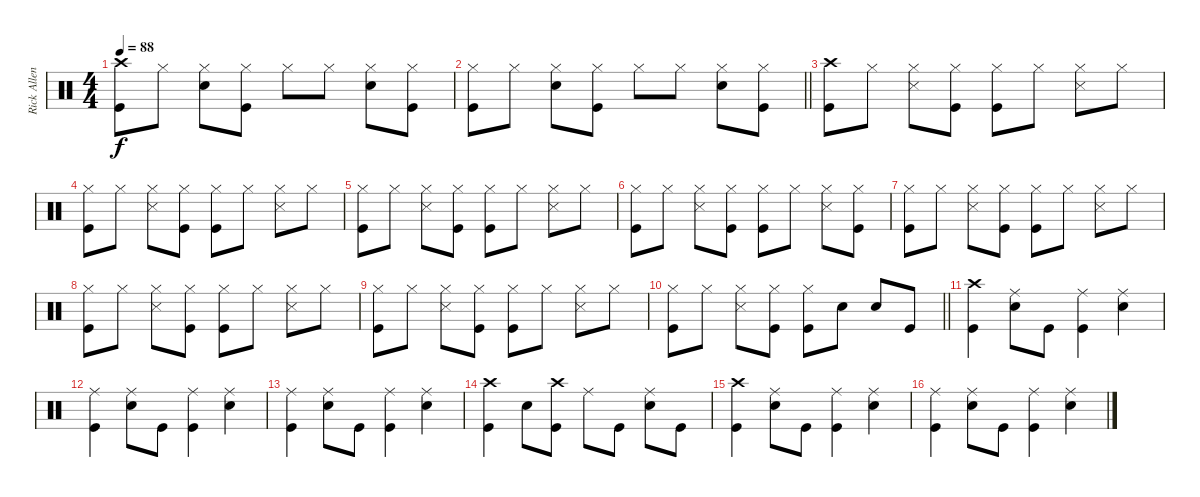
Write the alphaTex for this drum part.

\track ("Rick Allen" "Rick Allen") {instrument percussion}
\staff {score}
\articulation defaults
\ts (4 4)
\tempo 88
\clef neutral
\ks c
("Crash high (hit)" "Kick (hit)").8{dy f} "Hi-Hat (closed)".8 ("Hi-Hat (closed)" "Snare (hit) 2").8 ("Hi-Hat (closed)" "Kick (hit)").8 "Hi-Hat (closed)".8 "Hi-Hat (closed)".8 ("Hi-Hat (closed)" "Snare (hit) 2").8 ("Hi-Hat (closed)" "Kick (hit)").8 |
\barLineRight lightlight
("Hi-Hat (closed)" "Kick (hit)").8 "Hi-Hat (closed)".8 ("Hi-Hat (closed)" "Snare (hit) 2").8 ("Hi-Hat (closed)" "Kick (hit)").8 "Hi-Hat (closed)".8 "Hi-Hat (closed)".8 ("Hi-Hat (closed)" "Snare (hit) 2").8 ("Hi-Hat (closed)" "Kick (hit)").8 |
("Crash high (hit)" "Kick (hit)").8 "Hi-Hat (closed)".8 ("Hi-Hat (closed)" "Metronome (hit)").8 ("Hi-Hat (closed)" "Kick (hit)").8 ("Hi-Hat (closed)" "Kick (hit)").8 "Hi-Hat (closed)".8 ("Hi-Hat (closed)" "Metronome (hit)").8 "Hi-Hat (closed)".8 |
("Hi-Hat (closed)" "Kick (hit)").8 "Hi-Hat (closed)".8 ("Hi-Hat (closed)" "Metronome (hit)").8 ("Hi-Hat (closed)" "Kick (hit)").8 ("Hi-Hat (closed)" "Kick (hit)").8 "Hi-Hat (closed)".8 ("Hi-Hat (closed)" "Metronome (hit)").8 "Hi-Hat (closed)".8 |
("Hi-Hat (closed)" "Kick (hit)").8 "Hi-Hat (closed)".8 ("Hi-Hat (closed)" "Metronome (hit)").8 ("Hi-Hat (closed)" "Kick (hit)").8 ("Hi-Hat (closed)" "Kick (hit)").8 "Hi-Hat (closed)".8 ("Hi-Hat (closed)" "Metronome (hit)").8 "Hi-Hat (closed)".8 |
("Hi-Hat (closed)" "Kick (hit)").8 "Hi-Hat (closed)".8 ("Hi-Hat (closed)" "Metronome (hit)").8 ("Hi-Hat (closed)" "Kick (hit)").8 ("Hi-Hat (closed)" "Kick (hit)").8 "Hi-Hat (closed)".8 ("Hi-Hat (closed)" "Metronome (hit)").8 ("Hi-Hat (closed)" "Kick (hit)").8 |
("Hi-Hat (closed)" "Kick (hit)").8 "Hi-Hat (closed)".8 ("Hi-Hat (closed)" "Metronome (hit)").8 ("Hi-Hat (closed)" "Kick (hit)").8 ("Hi-Hat (closed)" "Kick (hit)").8 "Hi-Hat (closed)".8 ("Hi-Hat (closed)" "Metronome (hit)").8 "Hi-Hat (closed)".8 |
("Hi-Hat (closed)" "Kick (hit)").8 "Hi-Hat (closed)".8 ("Hi-Hat (closed)" "Metronome (hit)").8 ("Hi-Hat (closed)" "Kick (hit)").8 ("Hi-Hat (closed)" "Kick (hit)").8 "Hi-Hat (closed)".8 ("Hi-Hat (closed)" "Metronome (hit)").8 "Hi-Hat (closed)".8 |
("Hi-Hat (closed)" "Kick (hit)").8 "Hi-Hat (closed)".8 ("Hi-Hat (closed)" "Metronome (hit)").8 ("Hi-Hat (closed)" "Kick (hit)").8 ("Hi-Hat (closed)" "Kick (hit)").8 "Hi-Hat (closed)".8 ("Hi-Hat (closed)" "Metronome (hit)").8 "Hi-Hat (closed)".8 |
\barLineRight lightlight
("Hi-Hat (closed)" "Kick (hit)").8 "Hi-Hat (closed)".8 ("Hi-Hat (closed)" "Metronome (hit)").8 ("Hi-Hat (closed)" "Kick (hit)").8 ("Hi-Hat (closed)" "Kick (hit)").8 "Snare (hit) 2".8 "Snare (hit) 2".8 "Kick (hit)".8 |
("Crash high (hit)" "Kick (hit)").4 ("Ride (middle)" "Snare (hit) 2").8 "Kick (hit)".8 ("Ride (middle)" "Kick (hit)").4 ("Ride (middle)" "Snare (hit) 2").4 |
("Ride (middle)" "Kick (hit)").4 ("Ride (middle)" "Snare (hit) 2").8 "Kick (hit)".8 ("Ride (middle)" "Kick (hit)").4 ("Ride (middle)" "Snare (hit) 2").4 |
("Ride (middle)" "Kick (hit)").4 ("Ride (middle)" "Snare (hit) 2").8 "Kick (hit)".8 ("Ride (middle)" "Kick (hit)").4 ("Ride (middle)" "Snare (hit) 2").4 |
("Crash high (hit)" "Kick (hit)").4 "Snare (hit) 2".8 ("Crash high (hit)" "Kick (hit)").8 "Ride (middle)".8 "Kick (hit)".8 ("Ride (middle)" "Snare (hit) 2").8 "Kick (hit)".8 |
("Crash high (hit)" "Kick (hit)").4 ("Ride (middle)" "Snare (hit) 2").8 "Kick (hit)".8 ("Ride (middle)" "Kick (hit)").4 ("Ride (middle)" "Snare (hit) 2").4 |
("Ride (middle)" "Kick (hit)").4 ("Ride (middle)" "Snare (hit) 2").8 "Kick (hit)".8 ("Ride (middle)" "Kick (hit)").4 ("Ride (middle)" "Snare (hit) 2").4
